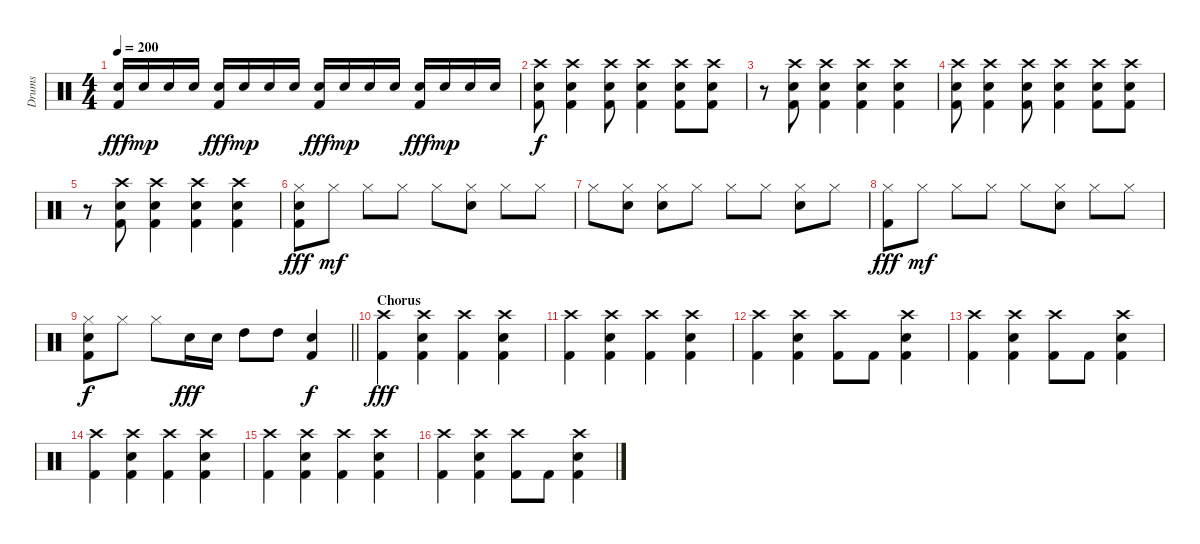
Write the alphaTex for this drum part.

\track ("Drums" "Drums") {instrument percussion}
\staff {score}
\articulation defaults
\ts (4 4)
\tempo 200
\clef neutral
\ks c
("Snare (hit) 2" "Kick (hit) 2").16{dy fff} "Snare (hit) 2".16{dy mp} "Snare (hit) 2".16 "Snare (hit) 2".16 ("Snare (hit) 2" "Kick (hit) 2").16{dy fff} "Snare (hit) 2".16{dy mp} "Snare (hit) 2".16 "Snare (hit) 2".16 ("Snare (hit) 2" "Kick (hit) 2").16{dy fff} "Snare (hit) 2".16{dy mp} "Snare (hit) 2".16 "Snare (hit) 2".16 ("Snare (hit) 2" "Kick (hit) 2").16{dy fff} "Snare (hit) 2".16{dy mp} "Snare (hit) 2".16 "Snare (hit) 2".16 |
("Crash high (hit)" "Snare (hit) 2" "Kick (hit) 2").8{dy f} ("Crash high (hit)" "Snare (hit) 2" "Kick (hit) 2").4 ("Crash high (hit)" "Snare (hit) 2" "Kick (hit) 2").8 ("Crash high (hit)" "Snare (hit) 2" "Kick (hit) 2").4 ("Crash high (hit)" "Snare (hit) 2" "Kick (hit) 2").8 ("Crash high (hit)" "Snare (hit) 2" "Kick (hit) 2").8 |
r.8 ("Crash high (hit)" "Snare (hit) 2" "Kick (hit) 2").8 ("Crash high (hit)" "Snare (hit) 2" "Kick (hit) 2").4 ("Crash high (hit)" "Snare (hit) 2" "Kick (hit) 2").4 ("Crash high (hit)" "Snare (hit) 2" "Kick (hit) 2").4 |
("Crash high (hit)" "Snare (hit) 2" "Kick (hit) 2").8 ("Crash high (hit)" "Snare (hit) 2" "Kick (hit) 2").4 ("Crash high (hit)" "Snare (hit) 2" "Kick (hit) 2").8 ("Crash high (hit)" "Snare (hit) 2" "Kick (hit) 2").4 ("Crash high (hit)" "Snare (hit) 2" "Kick (hit) 2").8 ("Crash high (hit)" "Snare (hit) 2" "Kick (hit) 2").8 |
r.8 ("Crash high (hit)" "Snare (hit) 2" "Kick (hit) 2").8 ("Crash high (hit)" "Snare (hit) 2" "Kick (hit) 2").4 ("Crash high (hit)" "Snare (hit) 2" "Kick (hit) 2").4 ("Crash high (hit)" "Snare (hit) 2" "Kick (hit) 2").4 |
("Hi-Hat (closed)" "Snare (hit) 2" "Kick (hit) 2").8{dy fff} "Hi-Hat (closed)".8{dy mf} "Hi-Hat (closed)".8 "Hi-Hat (closed)".8 "Hi-Hat (closed)".8 ("Hi-Hat (closed)" "Snare (hit) 2").8 "Hi-Hat (closed)".8 "Hi-Hat (closed)".8 |
"Hi-Hat (closed)".8 ("Hi-Hat (closed)" "Snare (hit) 2").8 ("Hi-Hat (closed)" "Snare (hit) 2").8 "Hi-Hat (closed)".8 "Hi-Hat (closed)".8 "Hi-Hat (closed)".8 ("Hi-Hat (closed)" "Snare (hit) 2").8 "Hi-Hat (closed)".8 |
("Hi-Hat (closed)" "Kick (hit) 2").8{dy fff} "Hi-Hat (closed)".8{dy mf} "Hi-Hat (closed)".8 "Hi-Hat (closed)".8 "Hi-Hat (closed)".8 ("Hi-Hat (closed)" "Snare (hit) 2").8 "Hi-Hat (closed)".8 "Hi-Hat (closed)".8 |
\barLineRight lightlight
("Hi-Hat (closed)" "Snare (hit) 2" "Kick (hit) 2").8{dy f} "Hi-Hat (closed)".8 "Hi-Hat (closed)".8 "Snare (hit) 2".16{dy fff} "Snare (hit) 2".16 "High Tom (hit)".8 "High Tom (hit)".8 ("Snare (hit) 2" "Kick (hit) 2").4{dy f} |
\section ("" "Chorus")
("Crash high (hit)" "Kick (hit) 2").4{dy fff} ("Crash high (hit)" "Snare (hit) 2" "Kick (hit) 2").4 ("Crash high (hit)" "Kick (hit) 2").4 ("Crash high (hit)" "Snare (hit) 2" "Kick (hit) 2").4 |
("Crash high (hit)" "Kick (hit) 2").4 ("Crash high (hit)" "Snare (hit) 2" "Kick (hit) 2").4 ("Crash high (hit)" "Kick (hit) 2").4 ("Crash high (hit)" "Snare (hit) 2" "Kick (hit) 2").4 |
("Crash high (hit)" "Kick (hit) 2").4 ("Crash high (hit)" "Snare (hit) 2" "Kick (hit) 2").4 ("Crash high (hit)" "Kick (hit) 2").8 "Kick (hit) 2".8 ("Crash high (hit)" "Snare (hit) 2" "Kick (hit) 2").4 |
("Crash high (hit)" "Kick (hit) 2").4 ("Crash high (hit)" "Snare (hit) 2" "Kick (hit) 2").4 ("Crash high (hit)" "Kick (hit) 2").8 "Kick (hit) 2".8 ("Crash high (hit)" "Snare (hit) 2" "Kick (hit) 2").4 |
("Crash high (hit)" "Kick (hit) 2").4 ("Crash high (hit)" "Snare (hit) 2" "Kick (hit) 2").4 ("Crash high (hit)" "Kick (hit) 2").4 ("Crash high (hit)" "Snare (hit) 2" "Kick (hit) 2").4 |
("Crash high (hit)" "Kick (hit) 2").4 ("Crash high (hit)" "Snare (hit) 2" "Kick (hit) 2").4 ("Crash high (hit)" "Kick (hit) 2").4 ("Crash high (hit)" "Snare (hit) 2" "Kick (hit) 2").4 |
("Crash high (hit)" "Kick (hit) 2").4 ("Crash high (hit)" "Snare (hit) 2" "Kick (hit) 2").4 ("Crash high (hit)" "Kick (hit) 2").8 "Kick (hit) 2".8 ("Crash high (hit)" "Snare (hit) 2" "Kick (hit) 2").4
